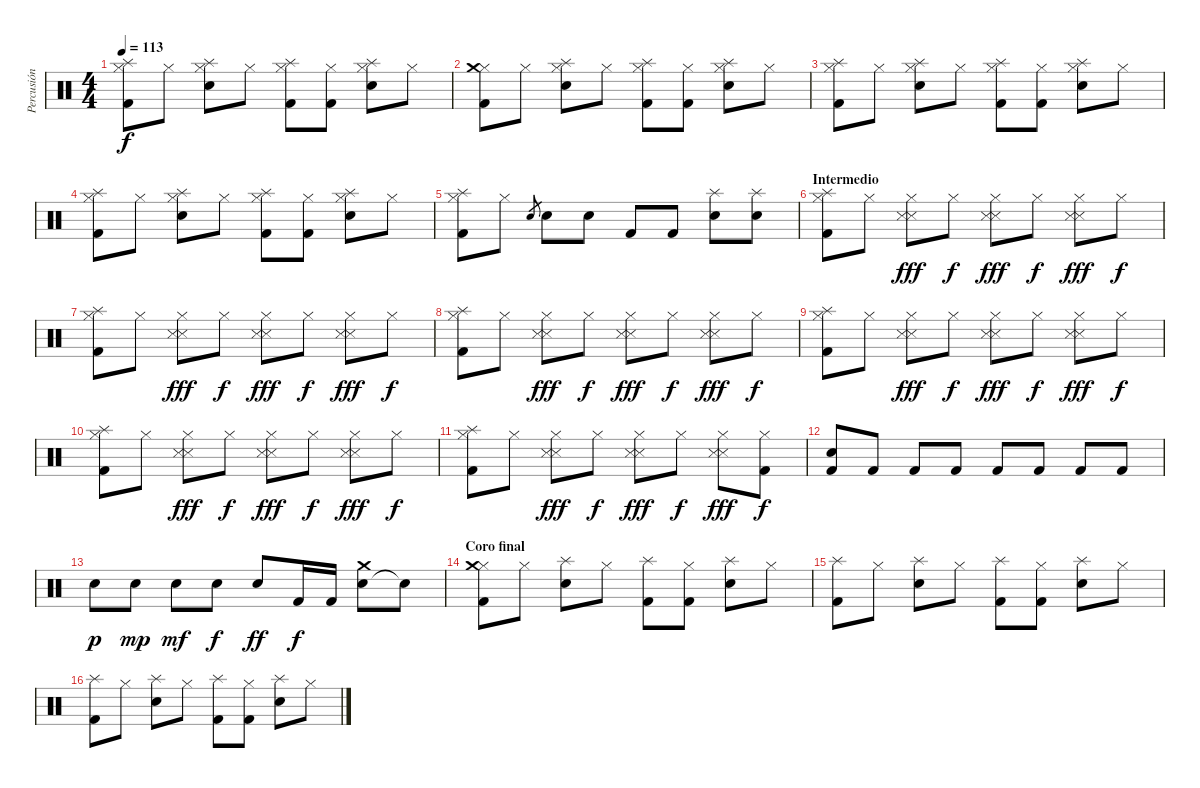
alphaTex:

\track ("Percusión" "Percusión") {instrument percussion}
\staff {score}
\articulation defaults
\ts (4 4)
\tempo 113
\clef neutral
\ks c
("Kick (hit) 2" "Hi-Hat (closed)" "Splash (hit)").8{dy f} "Hi-Hat (closed)".8 ("Electric Snare (hit)" "Hi-Hat (closed)" "Splash (hit)").8 "Hi-Hat (closed)".8 ("Kick (hit) 2" "Hi-Hat (closed)" "Splash (hit)").8 ("Kick (hit) 2" "Hi-Hat (closed)").8 ("Electric Snare (hit)" "Hi-Hat (closed)" "Splash (hit)").8 "Hi-Hat (closed)".8 |
("Kick (hit) 2" "Hi-Hat (closed)" "Crash medium (hit)").8 "Hi-Hat (closed)".8 ("Electric Snare (hit)" "Hi-Hat (closed)" "Splash (hit)").8 "Hi-Hat (closed)".8 ("Kick (hit) 2" "Hi-Hat (closed)" "Splash (hit)").8 ("Kick (hit) 2" "Hi-Hat (closed)").8 ("Electric Snare (hit)" "Hi-Hat (closed)" "Splash (hit)").8 "Hi-Hat (closed)".8 |
("Kick (hit) 2" "Hi-Hat (closed)" "Splash (hit)").8 "Hi-Hat (closed)".8 ("Electric Snare (hit)" "Hi-Hat (closed)" "Splash (hit)").8 "Hi-Hat (closed)".8 ("Kick (hit) 2" "Hi-Hat (closed)" "Splash (hit)").8 ("Kick (hit) 2" "Hi-Hat (closed)").8 ("Electric Snare (hit)" "Hi-Hat (closed)" "Splash (hit)").8 "Hi-Hat (closed)".8 |
("Kick (hit) 2" "Hi-Hat (closed)" "Splash (hit)").8 "Hi-Hat (closed)".8 ("Electric Snare (hit)" "Hi-Hat (closed)" "Splash (hit)").8 "Hi-Hat (closed)".8 ("Kick (hit) 2" "Hi-Hat (closed)" "Splash (hit)").8 ("Kick (hit) 2" "Hi-Hat (closed)").8 ("Electric Snare (hit)" "Hi-Hat (closed)" "Splash (hit)").8 "Hi-Hat (closed)".8 |
("Kick (hit) 2" "Hi-Hat (closed)" "Splash (hit)").8 "Hi-Hat (closed)".8 "Electric Snare (hit)".8{gr} "Electric Snare (hit)".8 "Electric Snare (hit)".8 "Kick (hit) 2".8 "Kick (hit) 2".8 ("Splash (hit)" "Electric Snare (hit)").8 ("Splash (hit)" "Electric Snare (hit)").8 |
\section ("" "Intermedio")
("Kick (hit) 2" "Hi-Hat (closed)" "Splash (hit)").8 "Hi-Hat (closed)".8 ("Metronome (hit)" "Metronome (hit)" "Hi-Hat (closed)").8{dy fff} "Hi-Hat (closed)".8{dy f} ("Metronome (hit)" "Metronome (hit)" "Hi-Hat (closed)").8{dy fff} "Hi-Hat (closed)".8{dy f} ("Metronome (hit)" "Metronome (hit)" "Hi-Hat (closed)").8{dy fff} "Hi-Hat (closed)".8{dy f} |
("Kick (hit) 2" "Hi-Hat (closed)" "Splash (hit)").8 "Hi-Hat (closed)".8 ("Metronome (hit)" "Metronome (hit)" "Hi-Hat (closed)").8{dy fff} "Hi-Hat (closed)".8{dy f} ("Metronome (hit)" "Metronome (hit)" "Hi-Hat (closed)").8{dy fff} "Hi-Hat (closed)".8{dy f} ("Metronome (hit)" "Metronome (hit)" "Hi-Hat (closed)").8{dy fff} "Hi-Hat (closed)".8{dy f} |
("Kick (hit) 2" "Hi-Hat (closed)" "Splash (hit)").8 "Hi-Hat (closed)".8 ("Metronome (hit)" "Metronome (hit)" "Hi-Hat (closed)").8{dy fff} "Hi-Hat (closed)".8{dy f} ("Metronome (hit)" "Metronome (hit)" "Hi-Hat (closed)").8{dy fff} "Hi-Hat (closed)".8{dy f} ("Metronome (hit)" "Metronome (hit)" "Hi-Hat (closed)").8{dy fff} "Hi-Hat (closed)".8{dy f} |
("Kick (hit) 2" "Hi-Hat (closed)" "Splash (hit)").8 "Hi-Hat (closed)".8 ("Metronome (hit)" "Metronome (hit)" "Hi-Hat (closed)").8{dy fff} "Hi-Hat (closed)".8{dy f} ("Metronome (hit)" "Metronome (hit)" "Hi-Hat (closed)").8{dy fff} "Hi-Hat (closed)".8{dy f} ("Metronome (hit)" "Metronome (hit)" "Hi-Hat (closed)").8{dy fff} "Hi-Hat (closed)".8{dy f} |
("Kick (hit) 2" "Hi-Hat (closed)" "Splash (hit)").8 "Hi-Hat (closed)".8 ("Metronome (hit)" "Metronome (hit)" "Hi-Hat (closed)").8{dy fff} "Hi-Hat (closed)".8{dy f} ("Metronome (hit)" "Metronome (hit)" "Hi-Hat (closed)").8{dy fff} "Hi-Hat (closed)".8{dy f} ("Metronome (hit)" "Metronome (hit)" "Hi-Hat (closed)").8{dy fff} "Hi-Hat (closed)".8{dy f} |
("Kick (hit) 2" "Hi-Hat (closed)" "Splash (hit)").8 "Hi-Hat (closed)".8 ("Metronome (hit)" "Metronome (hit)" "Hi-Hat (closed)").8{dy fff} "Hi-Hat (closed)".8{dy f} ("Metronome (hit)" "Metronome (hit)" "Hi-Hat (closed)").8{dy fff} "Hi-Hat (closed)".8{dy f} ("Metronome (hit)" "Metronome (hit)" "Hi-Hat (closed)").8{dy fff} ("Hi-Hat (closed)" "Kick (hit) 2").8{dy f} |
("Electric Snare (hit)" "Kick (hit) 2").8 "Kick (hit) 2".8 "Kick (hit) 2".8 "Kick (hit) 2".8 "Kick (hit) 2".8 "Kick (hit) 2".8 "Kick (hit) 2".8 "Kick (hit) 2".8 |
"Electric Snare (hit)".8{dy p} "Electric Snare (hit)".8{dy mp} "Electric Snare (hit)".8{dy mf} "Electric Snare (hit)".8{dy f} "Electric Snare (hit)".8{dy ff} "Kick (hit) 2".16{dy f} "Kick (hit) 2".16 ("Electric Snare (hit)" "Crash medium (hit)").8 "Snare (hit)"{t}.8 |
\section ("" "Coro final")
("Kick (hit) 2" "Hi-Hat (closed)" "Crash medium (hit)").8 "Hi-Hat (closed)".8 ("Electric Snare (hit)" "Splash (hit)").8 "Hi-Hat (closed)".8 ("Kick (hit) 2" "Splash (hit)").8 ("Kick (hit) 2" "Hi-Hat (closed)").8 ("Electric Snare (hit)" "Splash (hit)").8 "Hi-Hat (closed)".8 |
("Kick (hit) 2" "Splash (hit)").8 "Hi-Hat (closed)".8 ("Electric Snare (hit)" "Splash (hit)").8 "Hi-Hat (closed)".8 ("Kick (hit) 2" "Splash (hit)").8 ("Kick (hit) 2" "Hi-Hat (closed)").8 ("Electric Snare (hit)" "Splash (hit)").8 "Hi-Hat (closed)".8 |
("Kick (hit) 2" "Splash (hit)").8 "Hi-Hat (closed)".8 ("Electric Snare (hit)" "Splash (hit)").8 "Hi-Hat (closed)".8 ("Kick (hit) 2" "Splash (hit)").8 ("Kick (hit) 2" "Hi-Hat (closed)").8 ("Electric Snare (hit)" "Splash (hit)").8 "Hi-Hat (closed)".8
